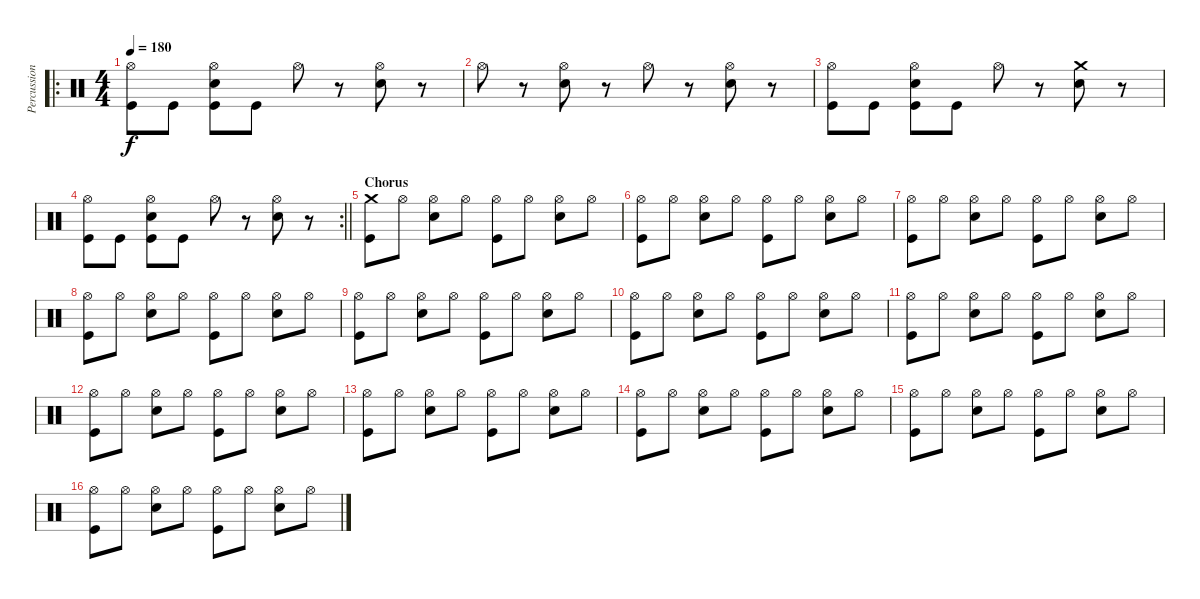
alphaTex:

\track ("Percussion" "Percussion") {instrument percussion}
\staff {score}
\articulation defaults
\ro
\ts (4 4)
\tempo 180
\clef neutral
\ks c
("Hi-Hat (open)" "Kick (hit)").8{dy f} "Kick (hit)".8 ("Hi-Hat (open)" "Snare (hit) 2" "Kick (hit)").8 "Kick (hit)".8 "Hi-Hat (open)".8 r.8 ("Hi-Hat (open)" "Snare (hit) 2").8 r.8 |
"Hi-Hat (open)".8 r.8 ("Hi-Hat (open)" "Snare (hit) 2").8 r.8 "Hi-Hat (open)".8 r.8 ("Hi-Hat (open)" "Snare (hit) 2").8 r.8 |
("Hi-Hat (open)" "Kick (hit)").8 "Kick (hit)".8 ("Hi-Hat (open)" "Snare (hit) 2" "Kick (hit)").8 "Kick (hit)".8 "Hi-Hat (open)".8 r.8 ("Crash medium (hit)" "Snare (hit) 2").8 r.8 |
\rc 2
\barLineRight lightlight
("Hi-Hat (open)" "Kick (hit)").8 "Kick (hit)".8 ("Hi-Hat (open)" "Snare (hit) 2" "Kick (hit)").8 "Kick (hit)".8 "Hi-Hat (open)".8 r.8 ("Hi-Hat (open)" "Snare (hit) 2").8 r.8 |
\section ("" "Chorus")
("Crash medium (hit)" "Kick (hit)").8 "Hi-Hat (open)".8 ("Hi-Hat (open)" "Snare (hit) 2").8 "Hi-Hat (open)".8 ("Hi-Hat (open)" "Kick (hit)").8 "Hi-Hat (open)".8 ("Hi-Hat (open)" "Snare (hit) 2").8 "Hi-Hat (open)".8 |
("Hi-Hat (open)" "Kick (hit)").8 "Hi-Hat (open)".8 ("Hi-Hat (open)" "Snare (hit) 2").8 "Hi-Hat (open)".8 ("Hi-Hat (open)" "Kick (hit)").8 "Hi-Hat (open)".8 ("Hi-Hat (open)" "Snare (hit) 2").8 "Hi-Hat (open)".8 |
("Hi-Hat (open)" "Kick (hit)").8 "Hi-Hat (open)".8 ("Hi-Hat (open)" "Snare (hit) 2").8 "Hi-Hat (open)".8 ("Hi-Hat (open)" "Kick (hit)").8 "Hi-Hat (open)".8 ("Hi-Hat (open)" "Snare (hit) 2").8 "Hi-Hat (open)".8 |
("Hi-Hat (open)" "Kick (hit)").8 "Hi-Hat (open)".8 ("Hi-Hat (open)" "Snare (hit) 2").8 "Hi-Hat (open)".8 ("Hi-Hat (open)" "Kick (hit)").8 "Hi-Hat (open)".8 ("Hi-Hat (open)" "Snare (hit) 2").8 "Hi-Hat (open)".8 |
("Hi-Hat (open)" "Kick (hit)").8 "Hi-Hat (open)".8 ("Hi-Hat (open)" "Snare (hit) 2").8 "Hi-Hat (open)".8 ("Hi-Hat (open)" "Kick (hit)").8 "Hi-Hat (open)".8 ("Hi-Hat (open)" "Snare (hit) 2").8 "Hi-Hat (open)".8 |
("Hi-Hat (open)" "Kick (hit)").8 "Hi-Hat (open)".8 ("Hi-Hat (open)" "Snare (hit) 2").8 "Hi-Hat (open)".8 ("Hi-Hat (open)" "Kick (hit)").8 "Hi-Hat (open)".8 ("Hi-Hat (open)" "Snare (hit) 2").8 "Hi-Hat (open)".8 |
("Hi-Hat (open)" "Kick (hit)").8 "Hi-Hat (open)".8 ("Hi-Hat (open)" "Snare (hit) 2").8 "Hi-Hat (open)".8 ("Hi-Hat (open)" "Kick (hit)").8 "Hi-Hat (open)".8 ("Hi-Hat (open)" "Snare (hit) 2").8 "Hi-Hat (open)".8 |
("Hi-Hat (open)" "Kick (hit)").8 "Hi-Hat (open)".8 ("Hi-Hat (open)" "Snare (hit) 2").8 "Hi-Hat (open)".8 ("Hi-Hat (open)" "Kick (hit)").8 "Hi-Hat (open)".8 ("Hi-Hat (open)" "Snare (hit) 2").8 "Hi-Hat (open)".8 |
("Hi-Hat (open)" "Kick (hit)").8 "Hi-Hat (open)".8 ("Hi-Hat (open)" "Snare (hit) 2").8 "Hi-Hat (open)".8 ("Hi-Hat (open)" "Kick (hit)").8 "Hi-Hat (open)".8 ("Hi-Hat (open)" "Snare (hit) 2").8 "Hi-Hat (open)".8 |
("Hi-Hat (open)" "Kick (hit)").8 "Hi-Hat (open)".8 ("Hi-Hat (open)" "Snare (hit) 2").8 "Hi-Hat (open)".8 ("Hi-Hat (open)" "Kick (hit)").8 "Hi-Hat (open)".8 ("Hi-Hat (open)" "Snare (hit) 2").8 "Hi-Hat (open)".8 |
("Hi-Hat (open)" "Kick (hit)").8 "Hi-Hat (open)".8 ("Hi-Hat (open)" "Snare (hit) 2").8 "Hi-Hat (open)".8 ("Hi-Hat (open)" "Kick (hit)").8 "Hi-Hat (open)".8 ("Hi-Hat (open)" "Snare (hit) 2").8 "Hi-Hat (open)".8 |
("Hi-Hat (open)" "Kick (hit)").8 "Hi-Hat (open)".8 ("Hi-Hat (open)" "Snare (hit) 2").8 "Hi-Hat (open)".8 ("Hi-Hat (open)" "Kick (hit)").8 "Hi-Hat (open)".8 ("Hi-Hat (open)" "Snare (hit) 2").8 "Hi-Hat (open)".8
